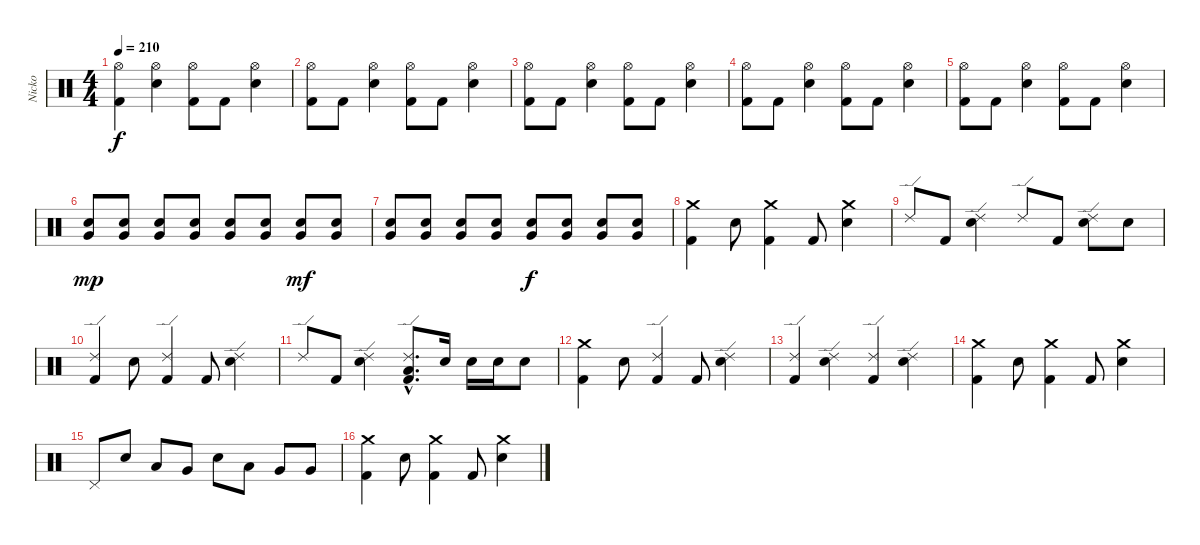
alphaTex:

\track ("Nicko" "Nicko") {instrument percussion}
\staff {score}
\articulation defaults
\ts (4 4)
\tempo 210
\clef neutral
\ks c
("Hi-Hat (open)" "Kick (hit) 2").4{dy f} ("Hi-Hat (open)" "Electric Snare (hit)").4 ("Hi-Hat (open)" "Kick (hit) 2").8 "Kick (hit) 2".8 ("Hi-Hat (open)" "Electric Snare (hit)").4 |
("Hi-Hat (open)" "Kick (hit) 2").8 "Kick (hit) 2".8 ("Hi-Hat (open)" "Electric Snare (hit)").4 ("Hi-Hat (open)" "Kick (hit) 2").8 "Kick (hit) 2".8 ("Hi-Hat (open)" "Electric Snare (hit)").4 |
("Hi-Hat (open)" "Kick (hit) 2").8 "Kick (hit) 2".8 ("Hi-Hat (open)" "Electric Snare (hit)").4 ("Hi-Hat (open)" "Kick (hit) 2").8 "Kick (hit) 2".8 ("Hi-Hat (open)" "Electric Snare (hit)").4 |
("Hi-Hat (open)" "Kick (hit) 2").8 "Kick (hit) 2".8 ("Hi-Hat (open)" "Electric Snare (hit)").4 ("Hi-Hat (open)" "Kick (hit) 2").8 "Kick (hit) 2".8 ("Hi-Hat (open)" "Electric Snare (hit)").4 |
("Hi-Hat (open)" "Kick (hit) 2").8 "Kick (hit) 2".8 ("Hi-Hat (open)" "Electric Snare (hit)").4 ("Hi-Hat (open)" "Kick (hit) 2").8 "Kick (hit) 2".8 ("Hi-Hat (open)" "Electric Snare (hit)").4 |
("Electric Snare (hit)" "Very Low Tom (hit)").8{dy mp} ("Electric Snare (hit)" "Very Low Tom (hit)").8 ("Electric Snare (hit)" "Very Low Tom (hit)").8 ("Electric Snare (hit)" "Very Low Tom (hit)").8 ("Electric Snare (hit)" "Very Low Tom (hit)").8 ("Electric Snare (hit)" "Very Low Tom (hit)").8 ("Electric Snare (hit)" "Very Low Tom (hit)").8{dy mf} ("Electric Snare (hit)" "Very Low Tom (hit)").8 |
("Electric Snare (hit)" "Very Low Tom (hit)").8 ("Electric Snare (hit)" "Very Low Tom (hit)").8 ("Electric Snare (hit)" "Very Low Tom (hit)").8 ("Electric Snare (hit)" "Very Low Tom (hit)").8 ("Electric Snare (hit)" "Very Low Tom (hit)").8{dy f} ("Electric Snare (hit)" "Very Low Tom (hit)").8 ("Electric Snare (hit)" "Very Low Tom (hit)").8 ("Electric Snare (hit)" "Very Low Tom (hit)").8 |
("Crash medium (hit)" "Kick (hit) 2").4 "Electric Snare (hit)".8 ("Crash medium (hit)" "Kick (hit) 2").4 "Kick (hit) 2".8 ("Crash medium (hit)" "Electric Snare (hit)").4 |
"Ride (edge) 2".8 "Kick (hit) 2".8 ("Ride (edge) 2" "Electric Snare (hit)").4 "Ride (edge) 2".8 "Kick (hit) 2".8 ("Ride (edge) 2" "Electric Snare (hit)").8 "Electric Snare (hit)".8 |
("Ride (edge) 2" "Kick (hit) 2").4 "Electric Snare (hit)".8 ("Ride (edge) 2" "Kick (hit) 2").4 "Kick (hit) 2".8 ("Ride (edge) 2" "Electric Snare (hit)").4 |
"Ride (edge) 2".8 "Kick (hit) 2".8 ("Ride (edge) 2" "Electric Snare (hit)").4 ("Ride (edge) 2"{hac} "Low Tom (hit)"{hac} "Kick (hit) 2"{hac}).8{d} "Electric Snare (hit)".16 "Electric Snare (hit)".16 "Electric Snare (hit)".16 "Electric Snare (hit)".8 |
("Crash medium (hit)" "Kick (hit) 2").4 "Electric Snare (hit)".8 ("Ride (edge) 2" "Kick (hit) 2").4 "Kick (hit) 2".8 ("Ride (edge) 2" "Electric Snare (hit)").4 |
("Ride (edge) 2" "Kick (hit) 2").4 ("Ride (edge) 2" "Electric Snare (hit)").4 ("Ride (edge) 2" "Kick (hit) 2").4 ("Ride (edge) 2" "Electric Snare (hit)").4 |
("Crash medium (hit)" "Kick (hit) 2").4 "Electric Snare (hit)".8 ("Crash medium (hit)" "Kick (hit) 2").4 "Kick (hit) 2".8 ("Crash medium (hit)" "Electric Snare (hit)").4 |
"Pedal Hi-Hat (hit)".8 "Electric Snare (hit)".8 "Low Tom (hit)".8 "Very Low Tom (hit)".8 "Electric Snare (hit)".8 "Low Tom (hit)".8 "Very Low Tom (hit)".8 "Very Low Tom (hit)".8 |
("Crash medium (hit)" "Kick (hit) 2").4 "Electric Snare (hit)".8 ("Crash medium (hit)" "Kick (hit) 2").4 "Kick (hit) 2".8 ("Crash medium (hit)" "Electric Snare (hit)").4
